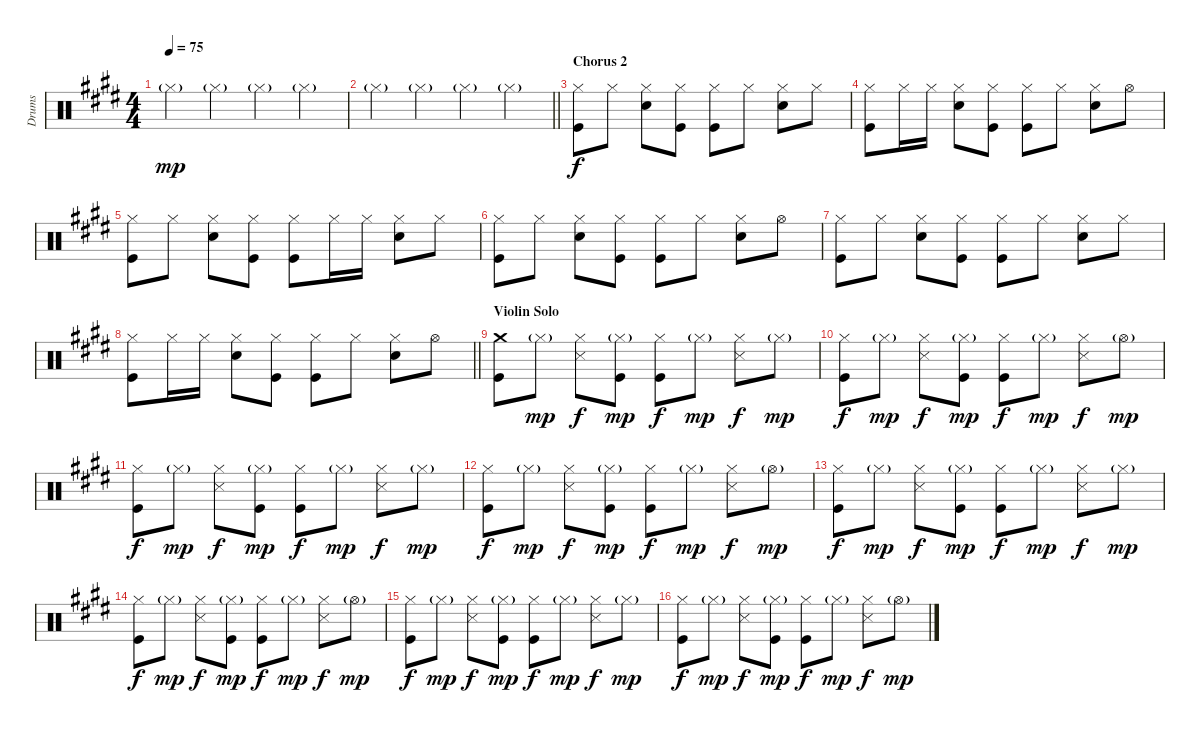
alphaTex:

\track ("Drums" "Drums") {instrument percussion}
\staff {score}
\articulation defaults
\ts (4 4)
\tempo 75
\clef neutral
\ks e "Hi-Hat (closed)"{g}.4{dy mp} "Hi-Hat (closed)"{g}.4 "Hi-Hat (closed)"{g}.4 "Hi-Hat (closed)"{g}.4
|
\barLineRight lightlight "Hi-Hat (closed)"{g}.4 "Hi-Hat (closed)"{g}.4 "Hi-Hat (closed)"{g}.4 "Hi-Hat (closed)"{g}.4
|
\section ("" "Chorus 2")
("Hi-Hat (closed)" "Kick (hit)").8{dy f} "Hi-Hat (closed)".8 ("Hi-Hat (closed)" "Electric Snare (hit)").8 ("Hi-Hat (closed)" "Kick (hit)").8 ("Hi-Hat (closed)" "Kick (hit)").8 "Hi-Hat (closed)".8 ("Hi-Hat (closed)" "Electric Snare (hit)").8 "Hi-Hat (closed)".8 |
("Hi-Hat (closed)" "Kick (hit)").8 "Hi-Hat (closed)".16 "Hi-Hat (closed)".16 ("Hi-Hat (closed)" "Electric Snare (hit)").8 ("Hi-Hat (closed)" "Kick (hit)").8 ("Hi-Hat (closed)" "Kick (hit)").8 "Hi-Hat (closed)".8 ("Hi-Hat (closed)" "Electric Snare (hit)").8 "Hi-Hat (open)".8 |
("Hi-Hat (closed)" "Kick (hit)").8 "Hi-Hat (closed)".8 ("Hi-Hat (closed)" "Electric Snare (hit)").8 ("Hi-Hat (closed)" "Kick (hit)").8 ("Hi-Hat (closed)" "Kick (hit)").8 "Hi-Hat (closed)".16 "Hi-Hat (closed)".16 ("Hi-Hat (closed)" "Electric Snare (hit)").8 "Hi-Hat (closed)".8 |
("Hi-Hat (closed)" "Kick (hit)").8 "Hi-Hat (closed)".8 ("Hi-Hat (closed)" "Electric Snare (hit)").8 ("Hi-Hat (closed)" "Kick (hit)").8 ("Hi-Hat (closed)" "Kick (hit)").8 "Hi-Hat (closed)".8 ("Hi-Hat (closed)" "Electric Snare (hit)").8 "Hi-Hat (open)".8 |
("Hi-Hat (closed)" "Kick (hit)").8 "Hi-Hat (closed)".8 ("Hi-Hat (closed)" "Electric Snare (hit)").8 ("Hi-Hat (closed)" "Kick (hit)").8 ("Hi-Hat (closed)" "Kick (hit)").8 "Hi-Hat (closed)".8 ("Hi-Hat (closed)" "Electric Snare (hit)").8 "Hi-Hat (closed)".8 |
\barLineRight lightlight
("Hi-Hat (closed)" "Kick (hit)").8 "Hi-Hat (closed)".16 "Hi-Hat (closed)".16 ("Hi-Hat (closed)" "Electric Snare (hit)").8 ("Hi-Hat (closed)" "Kick (hit)").8 ("Hi-Hat (closed)" "Kick (hit)").8 "Hi-Hat (closed)".8 ("Hi-Hat (closed)" "Electric Snare (hit)").8 "Hi-Hat (open)".8 |
\section ("" "Violin Solo")
("Crash medium (hit)" "Kick (hit)").8 "Hi-Hat (closed)"{g}.8{dy mp} ("Hi-Hat (closed)" "Snare (side stick) 3").8{dy f} ("Hi-Hat (closed)"{g} "Kick (hit)").8{dy mp} ("Hi-Hat (closed)" "Kick (hit)").8{dy f} "Hi-Hat (closed)"{g}.8{dy mp} ("Hi-Hat (closed)" "Snare (side stick) 3").8{dy f} "Hi-Hat (closed)"{g}.8{dy mp} |
("Hi-Hat (closed)" "Kick (hit)").8{dy f} "Hi-Hat (closed)"{g}.8{dy mp} ("Hi-Hat (closed)" "Snare (side stick) 3").8{dy f} ("Hi-Hat (closed)"{g} "Kick (hit)").8{dy mp} ("Hi-Hat (closed)" "Kick (hit)").8{dy f} "Hi-Hat (closed)"{g}.8{dy mp} ("Hi-Hat (closed)" "Snare (side stick) 3").8{dy f} "Hi-Hat (open)"{g}.8{dy mp} |
("Hi-Hat (closed)" "Kick (hit)").8{dy f} "Hi-Hat (closed)"{g}.8{dy mp} ("Hi-Hat (closed)" "Snare (side stick) 3").8{dy f} ("Hi-Hat (closed)"{g} "Kick (hit)").8{dy mp} ("Hi-Hat (closed)" "Kick (hit)").8{dy f} "Hi-Hat (closed)"{g}.8{dy mp} ("Hi-Hat (closed)" "Snare (side stick) 3").8{dy f} "Hi-Hat (closed)"{g}.8{dy mp} |
("Hi-Hat (closed)" "Kick (hit)").8{dy f} "Hi-Hat (closed)"{g}.8{dy mp} ("Hi-Hat (closed)" "Snare (side stick) 3").8{dy f} ("Hi-Hat (closed)"{g} "Kick (hit)").8{dy mp} ("Hi-Hat (closed)" "Kick (hit)").8{dy f} "Hi-Hat (closed)"{g}.8{dy mp} ("Hi-Hat (closed)" "Snare (side stick) 3").8{dy f} "Hi-Hat (open)"{g}.8{dy mp} |
("Hi-Hat (closed)" "Kick (hit)").8{dy f} "Hi-Hat (closed)"{g}.8{dy mp} ("Hi-Hat (closed)" "Snare (side stick) 3").8{dy f} ("Hi-Hat (closed)"{g} "Kick (hit)").8{dy mp} ("Hi-Hat (closed)" "Kick (hit)").8{dy f} "Hi-Hat (closed)"{g}.8{dy mp} ("Hi-Hat (closed)" "Snare (side stick) 3").8{dy f} "Hi-Hat (closed)"{g}.8{dy mp} |
("Hi-Hat (closed)" "Kick (hit)").8{dy f} "Hi-Hat (closed)"{g}.8{dy mp} ("Hi-Hat (closed)" "Snare (side stick) 3").8{dy f} ("Hi-Hat (closed)"{g} "Kick (hit)").8{dy mp} ("Hi-Hat (closed)" "Kick (hit)").8{dy f} "Hi-Hat (closed)"{g}.8{dy mp} ("Hi-Hat (closed)" "Snare (side stick) 3").8{dy f} "Hi-Hat (open)"{g}.8{dy mp} |
("Hi-Hat (closed)" "Kick (hit)").8{dy f} "Hi-Hat (closed)"{g}.8{dy mp} ("Hi-Hat (closed)" "Snare (side stick) 3").8{dy f} ("Hi-Hat (closed)"{g} "Kick (hit)").8{dy mp} ("Hi-Hat (closed)" "Kick (hit)").8{dy f} "Hi-Hat (closed)"{g}.8{dy mp} ("Hi-Hat (closed)" "Snare (side stick) 3").8{dy f} "Hi-Hat (closed)"{g}.8{dy mp} |
("Hi-Hat (closed)" "Kick (hit)").8{dy f} "Hi-Hat (closed)"{g}.8{dy mp} ("Hi-Hat (closed)" "Snare (side stick) 3").8{dy f} ("Hi-Hat (closed)"{g} "Kick (hit)").8{dy mp} ("Hi-Hat (closed)" "Kick (hit)").8{dy f} "Hi-Hat (closed)"{g}.8{dy mp} ("Hi-Hat (closed)" "Snare (side stick) 3").8{dy f} "Hi-Hat (open)"{g}.8{dy mp}
